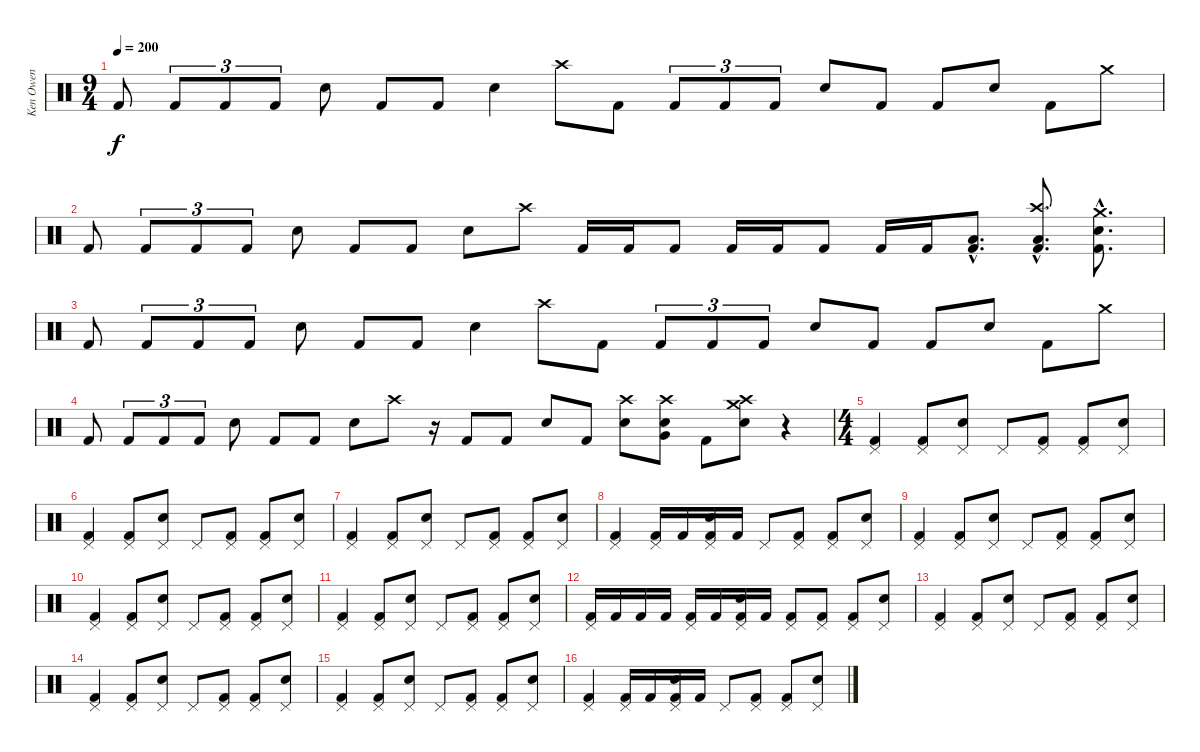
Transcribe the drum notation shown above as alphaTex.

\track ("Ken Owen" "Ken Owen") {instrument percussion}
\staff {score}
\articulation defaults
\ts (9 4)
\tempo 200
\clef neutral
\ks c "Kick (hit) 2".8{dy f} "Kick (hit) 2".8{tu (3 2)} "Kick (hit) 2".8{tu (3 2)} "Kick (hit) 2".8{tu (3 2)} "Snare (hit) 2".8 "Kick (hit) 2".8 "Kick (hit) 2".8 "Snare (hit) 2".4 "Crash high (hit)".8 "Kick (hit) 2".8 "Kick (hit) 2".8{tu (3 2)} "Kick (hit) 2".8{tu (3 2)} "Kick (hit) 2".8{tu (3 2)} "Snare (hit) 2".8 "Kick (hit) 2".8 "Kick (hit) 2".8 "Snare (hit) 2".8 "Kick (hit) 2".8 "Crash medium (hit)".8
|
"Kick (hit) 2".8 "Kick (hit) 2".8{tu (3 2)} "Kick (hit) 2".8{tu (3 2)} "Kick (hit) 2".8{tu (3 2)} "Snare (hit) 2".8 "Kick (hit) 2".8 "Kick (hit) 2".8 "Snare (hit) 2".8 "Crash high (hit)".8 "Kick (hit) 2".16 "Kick (hit) 2".16 "Kick (hit) 2".8 "Kick (hit) 2".16 "Kick (hit) 2".16 "Kick (hit) 2".8 "Kick (hit) 2".16 "Kick (hit) 2".16 ("Kick (hit) 2"{hac} "Low Floor Tom (hit)"{hac}).8{d} ("Crash high (hit)"{hac} "Kick (hit) 2"{hac} "Low Floor Tom (hit)"{hac}).8{d} ("Crash medium (hit)"{hac} "Kick (hit) 2"{hac} "Snare (hit) 2"{hac}).8{d} |
"Kick (hit) 2".8 "Kick (hit) 2".8{tu (3 2)} "Kick (hit) 2".8{tu (3 2)} "Kick (hit) 2".8{tu (3 2)} "Snare (hit) 2".8 "Kick (hit) 2".8 "Kick (hit) 2".8 "Snare (hit) 2".4 "Crash high (hit)".8 "Kick (hit) 2".8 "Kick (hit) 2".8{tu (3 2)} "Kick (hit) 2".8{tu (3 2)} "Kick (hit) 2".8{tu (3 2)} "Snare (hit) 2".8 "Kick (hit) 2".8 "Kick (hit) 2".8 "Snare (hit) 2".8 "Kick (hit) 2".8 "Crash medium (hit)".8 |
"Kick (hit) 2".8 "Kick (hit) 2".8{tu (3 2)} "Kick (hit) 2".8{tu (3 2)} "Kick (hit) 2".8{tu (3 2)} "Snare (hit) 2".8 "Kick (hit) 2".8 "Kick (hit) 2".8 "Snare (hit) 2".8 "Crash high (hit)".8 r.16 "Kick (hit) 2".8 "Kick (hit) 2".8 "Snare (hit) 2".8 "Kick (hit) 2".8 ("Crash high (hit)" "Snare (hit) 2").8 ("Crash high (hit)" "Very Low Tom (hit)" "Snare (hit) 2").8 "Kick (hit) 2".8 ("Crash high (hit)" "Snare (hit) 2" "Crash medium (hit)").8 r.4 |
\ts (4 4)
("Pedal Hi-Hat (hit)" "Kick (hit) 2").4 ("Pedal Hi-Hat (hit)" "Kick (hit) 2").8 ("Pedal Hi-Hat (hit)" "Snare (hit) 2").8 "Pedal Hi-Hat (hit)".8 ("Pedal Hi-Hat (hit)" "Kick (hit) 2").8 ("Pedal Hi-Hat (hit)" "Kick (hit) 2").8 ("Pedal Hi-Hat (hit)" "Snare (hit) 2").8 |
("Pedal Hi-Hat (hit)" "Kick (hit) 2").4 ("Pedal Hi-Hat (hit)" "Kick (hit) 2").8 ("Pedal Hi-Hat (hit)" "Snare (hit) 2").8 "Pedal Hi-Hat (hit)".8 ("Pedal Hi-Hat (hit)" "Kick (hit) 2").8 ("Pedal Hi-Hat (hit)" "Kick (hit) 2").8 ("Pedal Hi-Hat (hit)" "Snare (hit) 2").8 |
("Pedal Hi-Hat (hit)" "Kick (hit) 2").4 ("Pedal Hi-Hat (hit)" "Kick (hit) 2").8 ("Pedal Hi-Hat (hit)" "Snare (hit) 2").8 "Pedal Hi-Hat (hit)".8 ("Pedal Hi-Hat (hit)" "Kick (hit) 2").8 ("Pedal Hi-Hat (hit)" "Kick (hit) 2").8 ("Pedal Hi-Hat (hit)" "Snare (hit) 2").8 |
("Pedal Hi-Hat (hit)" "Kick (hit) 2").4 ("Pedal Hi-Hat (hit)" "Kick (hit) 2").16 "Kick (hit) 2".16 ("Pedal Hi-Hat (hit)" "Kick (hit) 2" "Snare (hit) 2").16 "Kick (hit) 2".16 "Pedal Hi-Hat (hit)".8 ("Pedal Hi-Hat (hit)" "Kick (hit) 2").8 ("Pedal Hi-Hat (hit)" "Kick (hit) 2").8 ("Pedal Hi-Hat (hit)" "Snare (hit) 2").8 |
("Pedal Hi-Hat (hit)" "Kick (hit) 2").4 ("Pedal Hi-Hat (hit)" "Kick (hit) 2").8 ("Pedal Hi-Hat (hit)" "Snare (hit) 2").8 "Pedal Hi-Hat (hit)".8 ("Pedal Hi-Hat (hit)" "Kick (hit) 2").8 ("Pedal Hi-Hat (hit)" "Kick (hit) 2").8 ("Pedal Hi-Hat (hit)" "Snare (hit) 2").8 |
("Pedal Hi-Hat (hit)" "Kick (hit) 2").4 ("Pedal Hi-Hat (hit)" "Kick (hit) 2").8 ("Pedal Hi-Hat (hit)" "Snare (hit) 2").8 "Pedal Hi-Hat (hit)".8 ("Pedal Hi-Hat (hit)" "Kick (hit) 2").8 ("Pedal Hi-Hat (hit)" "Kick (hit) 2").8 ("Pedal Hi-Hat (hit)" "Snare (hit) 2").8 |
("Pedal Hi-Hat (hit)" "Kick (hit) 2").4 ("Pedal Hi-Hat (hit)" "Kick (hit) 2").8 ("Pedal Hi-Hat (hit)" "Snare (hit) 2").8 "Pedal Hi-Hat (hit)".8 ("Pedal Hi-Hat (hit)" "Kick (hit) 2").8 ("Pedal Hi-Hat (hit)" "Kick (hit) 2").8 ("Pedal Hi-Hat (hit)" "Snare (hit) 2").8 |
("Pedal Hi-Hat (hit)" "Kick (hit) 2").16 "Kick (hit) 2".16 "Kick (hit) 2".16 "Kick (hit) 2".16 ("Pedal Hi-Hat (hit)" "Kick (hit) 2").16 "Kick (hit) 2".16 ("Pedal Hi-Hat (hit)" "Kick (hit) 2" "Snare (hit) 2").16 "Kick (hit) 2".16 ("Pedal Hi-Hat (hit)" "Kick (hit) 2").8 ("Pedal Hi-Hat (hit)" "Kick (hit) 2").8 ("Pedal Hi-Hat (hit)" "Kick (hit) 2").8 ("Pedal Hi-Hat (hit)" "Snare (hit) 2").8 |
("Pedal Hi-Hat (hit)" "Kick (hit) 2").4 ("Pedal Hi-Hat (hit)" "Kick (hit) 2").8 ("Pedal Hi-Hat (hit)" "Snare (hit) 2").8 "Pedal Hi-Hat (hit)".8 ("Pedal Hi-Hat (hit)" "Kick (hit) 2").8 ("Pedal Hi-Hat (hit)" "Kick (hit) 2").8 ("Pedal Hi-Hat (hit)" "Snare (hit) 2").8 |
("Pedal Hi-Hat (hit)" "Kick (hit) 2").4 ("Pedal Hi-Hat (hit)" "Kick (hit) 2").8 ("Pedal Hi-Hat (hit)" "Snare (hit) 2").8 "Pedal Hi-Hat (hit)".8 ("Pedal Hi-Hat (hit)" "Kick (hit) 2").8 ("Pedal Hi-Hat (hit)" "Kick (hit) 2").8 ("Pedal Hi-Hat (hit)" "Snare (hit) 2").8 |
("Pedal Hi-Hat (hit)" "Kick (hit) 2").4 ("Pedal Hi-Hat (hit)" "Kick (hit) 2").8 ("Pedal Hi-Hat (hit)" "Snare (hit) 2").8 "Pedal Hi-Hat (hit)".8 ("Pedal Hi-Hat (hit)" "Kick (hit) 2").8 ("Pedal Hi-Hat (hit)" "Kick (hit) 2").8 ("Pedal Hi-Hat (hit)" "Snare (hit) 2").8 |
("Pedal Hi-Hat (hit)" "Kick (hit) 2").4 ("Pedal Hi-Hat (hit)" "Kick (hit) 2").16 "Kick (hit) 2".16 ("Pedal Hi-Hat (hit)" "Kick (hit) 2" "Snare (hit) 2").16 "Kick (hit) 2".16 "Pedal Hi-Hat (hit)".8 ("Pedal Hi-Hat (hit)" "Kick (hit) 2").8 ("Pedal Hi-Hat (hit)" "Kick (hit) 2").8 ("Pedal Hi-Hat (hit)" "Snare (hit) 2").8
